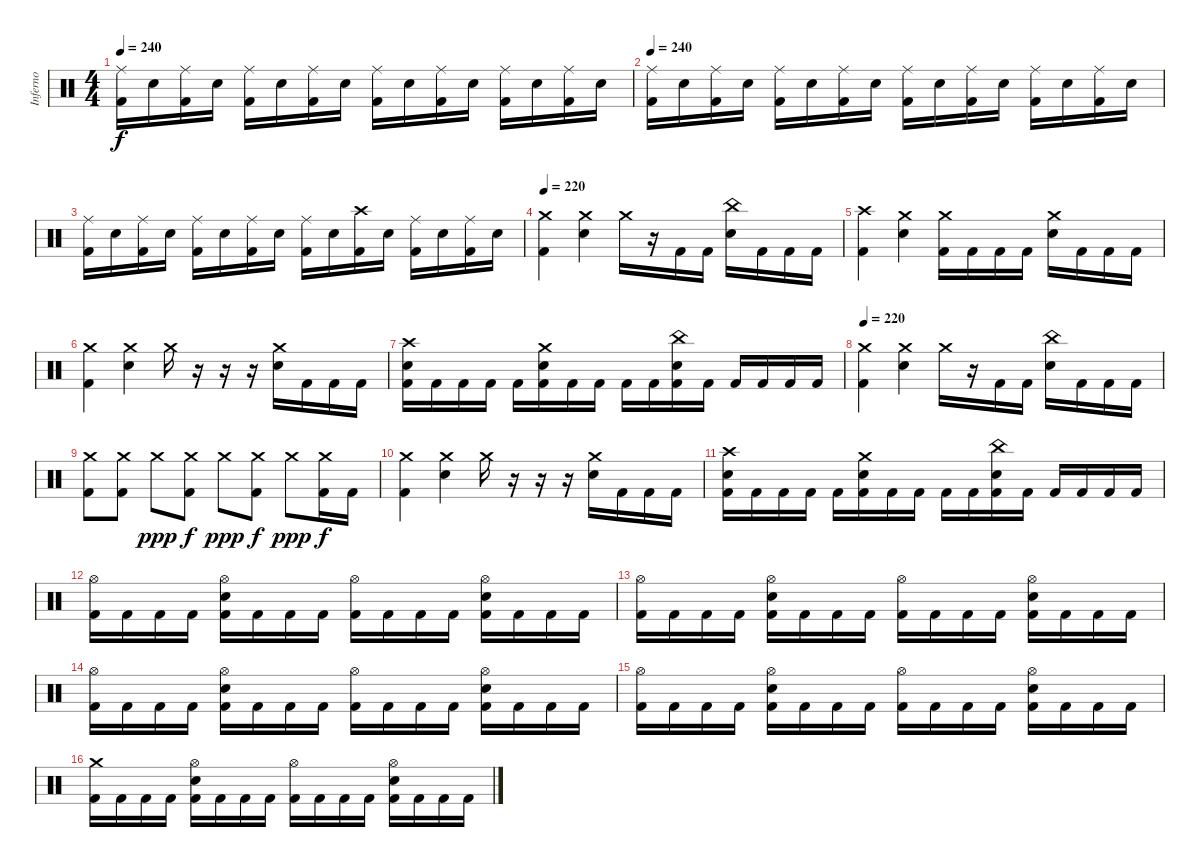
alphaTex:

\track ("Inferno" "Inferno") {instrument percussion}
\staff {score}
\articulation defaults
\ts (4 4)
\tempo 240
\clef neutral
\ks c
("Ride (middle)" "Kick (hit) 2").16{dy f} "Snare (hit) 2".16 ("Ride (middle)" "Kick (hit) 2").16 "Snare (hit) 2".16 ("Ride (middle)" "Kick (hit) 2").16 "Snare (hit) 2".16 ("Ride (middle)" "Kick (hit) 2").16 "Snare (hit) 2".16 ("Ride (middle)" "Kick (hit) 2").16 "Snare (hit) 2".16 ("Ride (middle)" "Kick (hit) 2").16 "Snare (hit) 2".16 ("Ride (middle)" "Kick (hit) 2").16 "Snare (hit) 2".16 ("Ride (middle)" "Kick (hit) 2").16 "Snare (hit) 2".16 |
\tempo 240
("Ride (middle)" "Kick (hit) 2").16 "Snare (hit) 2".16 ("Ride (middle)" "Kick (hit) 2").16 "Snare (hit) 2".16 ("Ride (middle)" "Kick (hit) 2").16 "Snare (hit) 2".16 ("Ride (middle)" "Kick (hit) 2").16 "Snare (hit) 2".16 ("Ride (middle)" "Kick (hit) 2").16 "Snare (hit) 2".16 ("Ride (middle)" "Kick (hit) 2").16 "Snare (hit) 2".16 ("Ride (middle)" "Kick (hit) 2").16 "Snare (hit) 2".16 ("Ride (middle)" "Kick (hit) 2").16 "Snare (hit) 2".16 |
("Ride (middle)" "Kick (hit) 2").16 "Snare (hit) 2".16 ("Ride (middle)" "Kick (hit) 2").16 "Snare (hit) 2".16 ("Ride (middle)" "Kick (hit) 2").16 "Snare (hit) 2".16 ("Ride (middle)" "Kick (hit) 2").16 "Snare (hit) 2".16 ("Ride (middle)" "Kick (hit) 2").16 "Snare (hit) 2".16 ("Crash high (hit)" "Kick (hit) 2").16 "Snare (hit) 2".16 ("Ride (middle)" "Kick (hit) 2").16 "Snare (hit) 2".16 ("Ride (middle)" "Kick (hit) 2").16 "Snare (hit) 2".16 |
\tempo 220
("Crash medium (hit)" "Kick (hit) 2").4 ("Crash medium (hit)" "Snare (hit) 2").4 "Crash medium (hit)".16 r.16 "Kick (hit) 2".16 "Kick (hit) 2".16 ("China (hit)" "Snare (hit) 2").16 "Kick (hit) 2".16 "Kick (hit) 2".16 "Kick (hit) 2".16 |
("Crash high (hit)" "Kick (hit) 2").4 ("Crash medium (hit)" "Snare (hit) 2").4 ("Crash medium (hit)" "Kick (hit) 2").16 "Kick (hit) 2".16 "Kick (hit) 2".16 "Kick (hit) 2".16 ("Crash medium (hit)" "Snare (hit) 2").16 "Kick (hit) 2".16 "Kick (hit) 2".16 "Kick (hit) 2".16 |
("Crash medium (hit)" "Kick (hit) 2").4 ("Crash medium (hit)" "Snare (hit) 2").4 "Crash medium (hit)".16 r.16 r.16 r.16 ("Crash medium (hit)" "Snare (hit) 2").16 "Kick (hit) 2".16 "Kick (hit) 2".16 "Kick (hit) 2".16 |
("Crash high (hit)" "Snare (hit) 2" "Kick (hit) 2").16 "Kick (hit) 2".16 "Kick (hit) 2".16 "Kick (hit) 2".16 "Kick (hit) 2".16 ("Crash medium (hit)" "Snare (hit) 2" "Kick (hit) 2").16 "Kick (hit) 2".16 "Kick (hit) 2".16 "Kick (hit) 2".16 "Kick (hit) 2".16 ("China (hit)" "Snare (hit) 2" "Kick (hit) 2").16 "Kick (hit) 2".16 "Kick (hit) 2".16 "Kick (hit) 2".16 "Kick (hit) 2".16 "Kick (hit) 2".16 |
\tempo 220
("Crash medium (hit)" "Kick (hit) 2").4 ("Crash medium (hit)" "Snare (hit) 2").4 "Crash medium (hit)".16 r.16 "Kick (hit) 2".16 "Kick (hit) 2".16 ("China (hit)" "Snare (hit) 2").16 "Kick (hit) 2".16 "Kick (hit) 2".16 "Kick (hit) 2".16 |
("Crash medium (hit)" "Kick (hit) 2").8 ("Crash medium (hit)" "Kick (hit) 2").8 "Crash medium (hit)".8{dy ppp} ("Crash medium (hit)" "Kick (hit) 2").8{dy f} "Crash medium (hit)".8{dy ppp} ("Crash medium (hit)" "Kick (hit) 2").8{dy f} "Crash medium (hit)".8{dy ppp} ("Crash medium (hit)" "Kick (hit) 2").16{dy f} "Kick (hit) 2".16 |
("Crash medium (hit)" "Kick (hit) 2").4 ("Crash medium (hit)" "Snare (hit) 2").4 "Crash medium (hit)".16 r.16 r.16 r.16 ("Crash medium (hit)" "Snare (hit) 2").16 "Kick (hit) 2".16 "Kick (hit) 2".16 "Kick (hit) 2".16 |
("Crash high (hit)" "Snare (hit) 2" "Kick (hit) 2").16 "Kick (hit) 2".16 "Kick (hit) 2".16 "Kick (hit) 2".16 "Kick (hit) 2".16 ("Crash medium (hit)" "Snare (hit) 2" "Kick (hit) 2").16 "Kick (hit) 2".16 "Kick (hit) 2".16 "Kick (hit) 2".16 "Kick (hit) 2".16 ("China (hit)" "Snare (hit) 2" "Kick (hit) 2").16 "Kick (hit) 2".16 "Kick (hit) 2".16 "Kick (hit) 2".16 "Kick (hit) 2".16 "Kick (hit) 2".16 |
("Hi-Hat (open)" "Kick (hit) 2").16 "Kick (hit) 2".16 "Kick (hit) 2".16 "Kick (hit) 2".16 ("Hi-Hat (open)" "Snare (hit) 2" "Kick (hit) 2").16 "Kick (hit) 2".16 "Kick (hit) 2".16 "Kick (hit) 2".16 ("Hi-Hat (open)" "Kick (hit) 2").16 "Kick (hit) 2".16 "Kick (hit) 2".16 "Kick (hit) 2".16 ("Hi-Hat (open)" "Snare (hit) 2" "Kick (hit) 2").16 "Kick (hit) 2".16 "Kick (hit) 2".16 "Kick (hit) 2".16 |
("Hi-Hat (open)" "Kick (hit) 2").16 "Kick (hit) 2".16 "Kick (hit) 2".16 "Kick (hit) 2".16 ("Hi-Hat (open)" "Snare (hit) 2" "Kick (hit) 2").16 "Kick (hit) 2".16 "Kick (hit) 2".16 "Kick (hit) 2".16 ("Hi-Hat (open)" "Kick (hit) 2").16 "Kick (hit) 2".16 "Kick (hit) 2".16 "Kick (hit) 2".16 ("Hi-Hat (open)" "Snare (hit) 2" "Kick (hit) 2").16 "Kick (hit) 2".16 "Kick (hit) 2".16 "Kick (hit) 2".16 |
("Hi-Hat (open)" "Kick (hit) 2").16 "Kick (hit) 2".16 "Kick (hit) 2".16 "Kick (hit) 2".16 ("Hi-Hat (open)" "Snare (hit) 2" "Kick (hit) 2").16 "Kick (hit) 2".16 "Kick (hit) 2".16 "Kick (hit) 2".16 ("Hi-Hat (open)" "Kick (hit) 2").16 "Kick (hit) 2".16 "Kick (hit) 2".16 "Kick (hit) 2".16 ("Hi-Hat (open)" "Snare (hit) 2" "Kick (hit) 2").16 "Kick (hit) 2".16 "Kick (hit) 2".16 "Kick (hit) 2".16 |
("Hi-Hat (open)" "Kick (hit) 2").16 "Kick (hit) 2".16 "Kick (hit) 2".16 "Kick (hit) 2".16 ("Hi-Hat (open)" "Snare (hit) 2" "Kick (hit) 2").16 "Kick (hit) 2".16 "Kick (hit) 2".16 "Kick (hit) 2".16 ("Hi-Hat (open)" "Kick (hit) 2").16 "Kick (hit) 2".16 "Kick (hit) 2".16 "Kick (hit) 2".16 ("Hi-Hat (open)" "Snare (hit) 2" "Kick (hit) 2").16 "Kick (hit) 2".16 "Kick (hit) 2".16 "Kick (hit) 2".16 |
("Crash medium (hit)" "Kick (hit) 2").16 "Kick (hit) 2".16 "Kick (hit) 2".16 "Kick (hit) 2".16 ("Hi-Hat (open)" "Snare (hit) 2" "Kick (hit) 2").16 "Kick (hit) 2".16 "Kick (hit) 2".16 "Kick (hit) 2".16 ("Hi-Hat (open)" "Kick (hit) 2").16 "Kick (hit) 2".16 "Kick (hit) 2".16 "Kick (hit) 2".16 ("Hi-Hat (open)" "Snare (hit) 2" "Kick (hit) 2").16 "Kick (hit) 2".16 "Kick (hit) 2".16 "Kick (hit) 2".16
